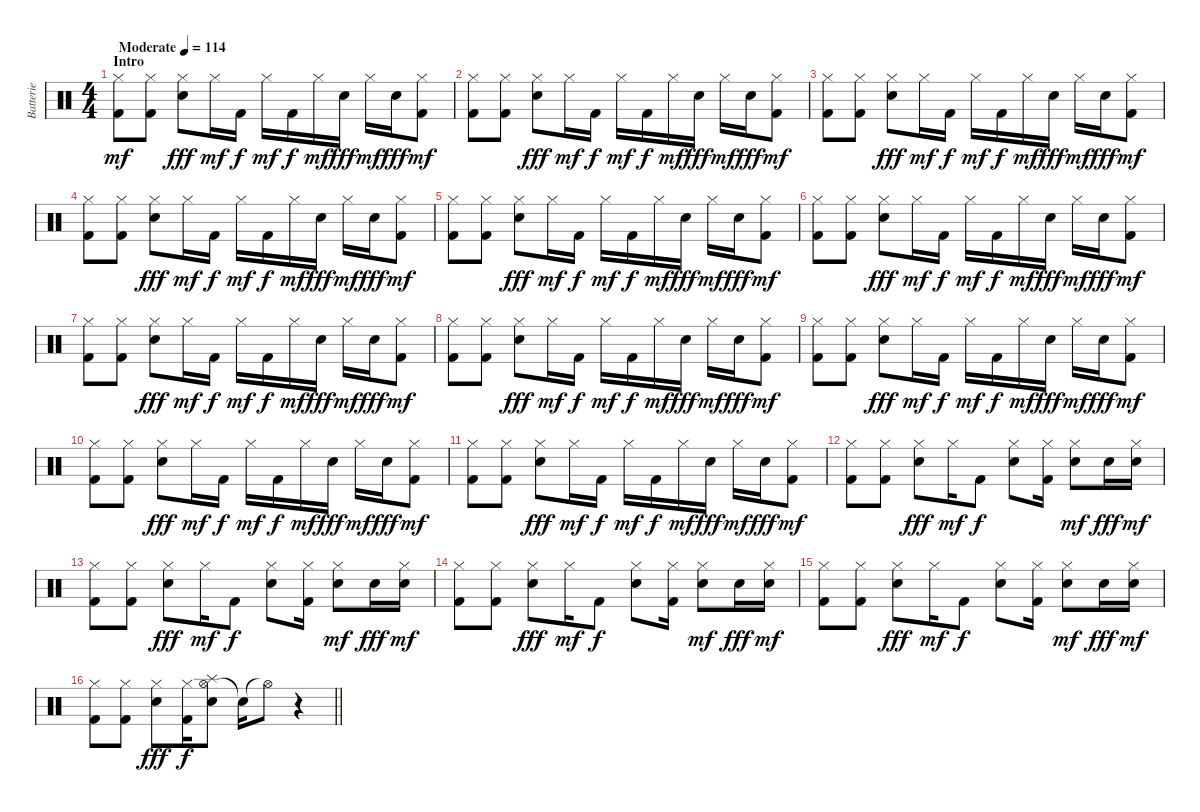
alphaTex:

\track ("Batterie" "Batterie") {instrument percussion}
\staff {score}
\articulation defaults
\ts (4 4)
\section ("" "Intro")
\tempo (114 "Moderate")
\clef neutral
\ks c
("Hi-Hat (closed)" "Kick (hit) 2").8{dy mf} ("Hi-Hat (closed)" "Kick (hit) 2").8 ("Hi-Hat (closed)" "Snare (hit) 2").8{dy fff} "Hi-Hat (closed)".16{dy mf} "Kick (hit) 2".16{dy f} "Hi-Hat (closed)".16{dy mf} "Kick (hit) 2".16{dy f} "Hi-Hat (closed)".16{dy mf} "Snare (hit) 2".16{dy fff} "Hi-Hat (closed)".16{dy mf} "Snare (hit) 2".16{dy fff} ("Hi-Hat (closed)" "Kick (hit) 2").8{dy mf} |
("Hi-Hat (closed)" "Kick (hit) 2").8 ("Hi-Hat (closed)" "Kick (hit) 2").8 ("Hi-Hat (closed)" "Snare (hit) 2").8{dy fff} "Hi-Hat (closed)".16{dy mf} "Kick (hit) 2".16{dy f} "Hi-Hat (closed)".16{dy mf} "Kick (hit) 2".16{dy f} "Hi-Hat (closed)".16{dy mf} "Snare (hit) 2".16{dy fff} "Hi-Hat (closed)".16{dy mf} "Snare (hit) 2".16{dy fff} ("Hi-Hat (closed)" "Kick (hit) 2").8{dy mf} |
("Hi-Hat (closed)" "Kick (hit) 2").8 ("Hi-Hat (closed)" "Kick (hit) 2").8 ("Hi-Hat (closed)" "Snare (hit) 2").8{dy fff} "Hi-Hat (closed)".16{dy mf} "Kick (hit) 2".16{dy f} "Hi-Hat (closed)".16{dy mf} "Kick (hit) 2".16{dy f} "Hi-Hat (closed)".16{dy mf} "Snare (hit) 2".16{dy fff} "Hi-Hat (closed)".16{dy mf} "Snare (hit) 2".16{dy fff} ("Hi-Hat (closed)" "Kick (hit) 2").8{dy mf} |
("Hi-Hat (closed)" "Kick (hit) 2").8 ("Hi-Hat (closed)" "Kick (hit) 2").8 ("Hi-Hat (closed)" "Snare (hit) 2").8{dy fff} "Hi-Hat (closed)".16{dy mf} "Kick (hit) 2".16{dy f} "Hi-Hat (closed)".16{dy mf} "Kick (hit) 2".16{dy f} "Hi-Hat (closed)".16{dy mf} "Snare (hit) 2".16{dy fff} "Hi-Hat (closed)".16{dy mf} "Snare (hit) 2".16{dy fff} ("Hi-Hat (closed)" "Kick (hit) 2").8{dy mf} |
("Hi-Hat (closed)" "Kick (hit) 2").8 ("Hi-Hat (closed)" "Kick (hit) 2").8 ("Hi-Hat (closed)" "Snare (hit) 2").8{dy fff} "Hi-Hat (closed)".16{dy mf} "Kick (hit) 2".16{dy f} "Hi-Hat (closed)".16{dy mf} "Kick (hit) 2".16{dy f} "Hi-Hat (closed)".16{dy mf} "Snare (hit) 2".16{dy fff} "Hi-Hat (closed)".16{dy mf} "Snare (hit) 2".16{dy fff} ("Hi-Hat (closed)" "Kick (hit) 2").8{dy mf} |
("Hi-Hat (closed)" "Kick (hit) 2").8 ("Hi-Hat (closed)" "Kick (hit) 2").8 ("Hi-Hat (closed)" "Snare (hit) 2").8{dy fff} "Hi-Hat (closed)".16{dy mf} "Kick (hit) 2".16{dy f} "Hi-Hat (closed)".16{dy mf} "Kick (hit) 2".16{dy f} "Hi-Hat (closed)".16{dy mf} "Snare (hit) 2".16{dy fff} "Hi-Hat (closed)".16{dy mf} "Snare (hit) 2".16{dy fff} ("Hi-Hat (closed)" "Kick (hit) 2").8{dy mf} |
("Hi-Hat (closed)" "Kick (hit) 2").8 ("Hi-Hat (closed)" "Kick (hit) 2").8 ("Hi-Hat (closed)" "Snare (hit) 2").8{dy fff} "Hi-Hat (closed)".16{dy mf} "Kick (hit) 2".16{dy f} "Hi-Hat (closed)".16{dy mf} "Kick (hit) 2".16{dy f} "Hi-Hat (closed)".16{dy mf} "Snare (hit) 2".16{dy fff} "Hi-Hat (closed)".16{dy mf} "Snare (hit) 2".16{dy fff} ("Hi-Hat (closed)" "Kick (hit) 2").8{dy mf} |
("Hi-Hat (closed)" "Kick (hit) 2").8 ("Hi-Hat (closed)" "Kick (hit) 2").8 ("Hi-Hat (closed)" "Snare (hit) 2").8{dy fff} "Hi-Hat (closed)".16{dy mf} "Kick (hit) 2".16{dy f} "Hi-Hat (closed)".16{dy mf} "Kick (hit) 2".16{dy f} "Hi-Hat (closed)".16{dy mf} "Snare (hit) 2".16{dy fff} "Hi-Hat (closed)".16{dy mf} "Snare (hit) 2".16{dy fff} ("Hi-Hat (closed)" "Kick (hit) 2").8{dy mf} |
("Hi-Hat (closed)" "Kick (hit) 2").8 ("Hi-Hat (closed)" "Kick (hit) 2").8 ("Hi-Hat (closed)" "Snare (hit) 2").8{dy fff} "Hi-Hat (closed)".16{dy mf} "Kick (hit) 2".16{dy f} "Hi-Hat (closed)".16{dy mf} "Kick (hit) 2".16{dy f} "Hi-Hat (closed)".16{dy mf} "Snare (hit) 2".16{dy fff} "Hi-Hat (closed)".16{dy mf} "Snare (hit) 2".16{dy fff} ("Hi-Hat (closed)" "Kick (hit) 2").8{dy mf} |
("Hi-Hat (closed)" "Kick (hit) 2").8 ("Hi-Hat (closed)" "Kick (hit) 2").8 ("Hi-Hat (closed)" "Snare (hit) 2").8{dy fff} "Hi-Hat (closed)".16{dy mf} "Kick (hit) 2".16{dy f} "Hi-Hat (closed)".16{dy mf} "Kick (hit) 2".16{dy f} "Hi-Hat (closed)".16{dy mf} "Snare (hit) 2".16{dy fff} "Hi-Hat (closed)".16{dy mf} "Snare (hit) 2".16{dy fff} ("Hi-Hat (closed)" "Kick (hit) 2").8{dy mf} |
("Hi-Hat (closed)" "Kick (hit) 2").8 ("Hi-Hat (closed)" "Kick (hit) 2").8 ("Hi-Hat (closed)" "Snare (hit) 2").8{dy fff} "Hi-Hat (closed)".16{dy mf} "Kick (hit) 2".16{dy f} "Hi-Hat (closed)".16{dy mf} "Kick (hit) 2".16{dy f} "Hi-Hat (closed)".16{dy mf} "Snare (hit) 2".16{dy fff} "Hi-Hat (closed)".16{dy mf} "Snare (hit) 2".16{dy fff} ("Hi-Hat (closed)" "Kick (hit) 2").8{dy mf} |
("Hi-Hat (closed)" "Kick (hit) 2").8 ("Hi-Hat (closed)" "Kick (hit) 2").8 ("Hi-Hat (closed)" "Snare (hit) 2").8{dy fff} "Hi-Hat (closed)".16{dy mf} "Kick (hit) 2".8{dy f} ("Hi-Hat (closed)" "Snare (hit) 2").8 ("Hi-Hat (closed)" "Kick (hit) 2").16 ("Hi-Hat (closed)" "Snare (hit) 2").8{dy mf} "Snare (hit) 2".16{dy fff} ("Hi-Hat (closed)" "Snare (hit) 2").16{dy mf} |
("Hi-Hat (closed)" "Kick (hit) 2").8 ("Hi-Hat (closed)" "Kick (hit) 2").8 ("Hi-Hat (closed)" "Snare (hit) 2").8{dy fff} "Hi-Hat (closed)".16{dy mf} "Kick (hit) 2".8{dy f} ("Hi-Hat (closed)" "Snare (hit) 2").8 ("Hi-Hat (closed)" "Kick (hit) 2").16 ("Hi-Hat (closed)" "Snare (hit) 2").8{dy mf} "Snare (hit) 2".16{dy fff} ("Hi-Hat (closed)" "Snare (hit) 2").16{dy mf} |
("Hi-Hat (closed)" "Kick (hit) 2").8 ("Hi-Hat (closed)" "Kick (hit) 2").8 ("Hi-Hat (closed)" "Snare (hit) 2").8{dy fff} "Hi-Hat (closed)".16{dy mf} "Kick (hit) 2".8{dy f} ("Hi-Hat (closed)" "Snare (hit) 2").8 ("Hi-Hat (closed)" "Kick (hit) 2").16 ("Hi-Hat (closed)" "Snare (hit) 2").8{dy mf} "Snare (hit) 2".16{dy fff} ("Hi-Hat (closed)" "Snare (hit) 2").16{dy mf} |
("Hi-Hat (closed)" "Kick (hit) 2").8 ("Hi-Hat (closed)" "Kick (hit) 2").8 ("Hi-Hat (closed)" "Snare (hit) 2").8{dy fff} "Hi-Hat (closed)".16{dy mf} "Kick (hit) 2".8{dy f} ("Hi-Hat (closed)" "Snare (hit) 2").8 ("Hi-Hat (closed)" "Kick (hit) 2").16 ("Hi-Hat (closed)" "Snare (hit) 2").8{dy mf} "Snare (hit) 2".16{dy fff} ("Hi-Hat (closed)" "Snare (hit) 2").16{dy mf} |
\barLineRight lightlight
("Hi-Hat (closed)" "Kick (hit) 2").8 ("Hi-Hat (closed)" "Kick (hit) 2").8 ("Hi-Hat (closed)" "Snare (hit) 2").8{dy fff} ("Hi-Hat (closed)" "Kick (hit) 2").16{dy f} ("Hi-Hat (open)" "Splash (hit)" "Snare (hit) 2").8 "Snare (hit)"{t}.16 "Hi-Hat (open)"{t}.8 r.4
